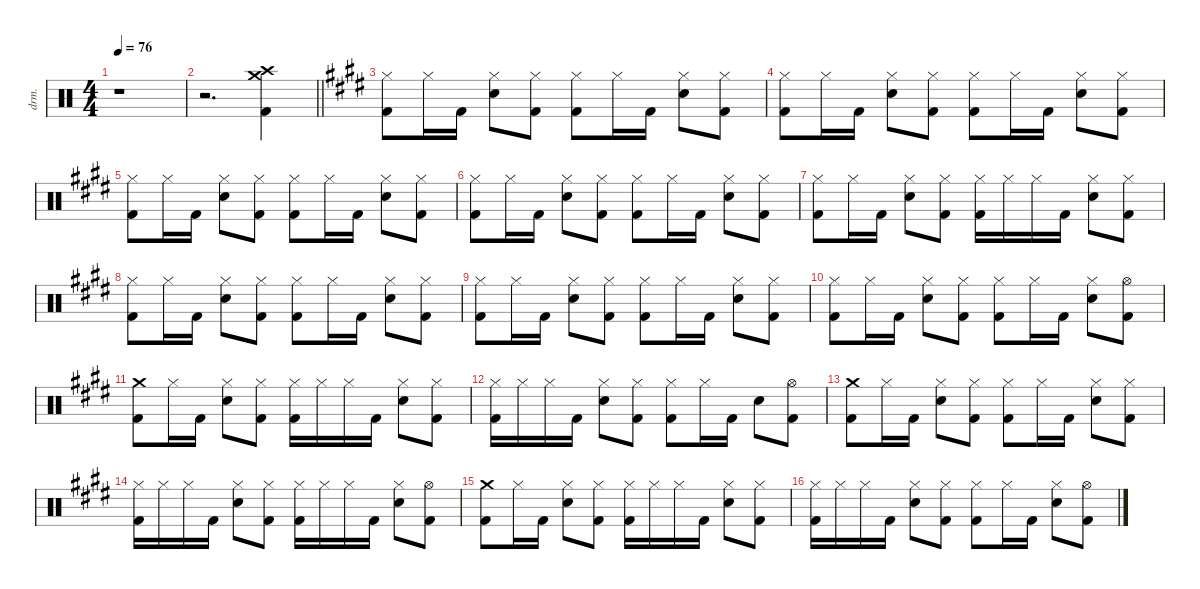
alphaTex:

\defaultSystemsLayout 4
\hideDynamics
\bracketExtendMode nobrackets
\otherSystemsTrackNameOrientation horizontal
\track ("Drums" "drm.") {defaultSystemsLayout 4 instrument percussion}
\staff {score}
\articulation defaults
\ts (4 4)
\tempo 76
\clef neutral
\ks c
r.1{dy f beam Down} |
\barLineRight lightlight
r.2{d beam Down} ("Crash medium (hit)" "Crash high (hit)" "Kick (hit) 2").4{beam Down} |
\ks e
("Hi-Hat (closed)"{acc forcenatural} "Kick (hit) 2"{acc forcenatural}).8{beam Down} "Hi-Hat (closed)"{acc forcenatural}.16{beam Down} "Kick (hit) 2"{acc forcenatural}.16{beam Down} ("Hi-Hat (closed)"{acc forcenatural} "Snare (hit) 2"{acc forcenatural}).8{dy mf beam Down} ("Hi-Hat (closed)"{acc forcenatural} "Kick (hit) 2"{acc forcenatural}).8{dy f beam Down} ("Hi-Hat (closed)"{acc forcenatural} "Kick (hit) 2"{acc forcenatural}).8{beam Down} "Hi-Hat (closed)"{acc forcenatural}.16{beam Down} "Kick (hit) 2"{acc forcenatural}.16{beam Down} ("Hi-Hat (closed)"{acc forcenatural} "Snare (hit) 2"{acc forcenatural}).8{dy mf beam Down} ("Hi-Hat (closed)"{acc forcenatural} "Kick (hit) 2"{acc forcenatural}).8{dy f beam Down} |
("Hi-Hat (closed)"{acc forcenatural} "Kick (hit) 2"{acc forcenatural}).8{beam Down} "Hi-Hat (closed)"{acc forcenatural}.16{beam Down} "Kick (hit) 2"{acc forcenatural}.16{beam Down} ("Hi-Hat (closed)"{acc forcenatural} "Snare (hit) 2"{acc forcenatural}).8{dy mf beam Down} ("Hi-Hat (closed)"{acc forcenatural} "Kick (hit) 2"{acc forcenatural}).8{dy f beam Down} ("Hi-Hat (closed)"{acc forcenatural} "Kick (hit) 2"{acc forcenatural}).8{beam Down} "Hi-Hat (closed)"{acc forcenatural}.16{beam Down} "Kick (hit) 2"{acc forcenatural}.16{beam Down} ("Hi-Hat (closed)"{acc forcenatural} "Snare (hit) 2"{acc forcenatural}).8{dy mf beam Down} ("Hi-Hat (closed)"{acc forcenatural} "Kick (hit) 2"{acc forcenatural}).8{dy f beam Down} |
("Hi-Hat (closed)"{acc forcenatural} "Kick (hit) 2"{acc forcenatural}).8{beam Down} "Hi-Hat (closed)"{acc forcenatural}.16{beam Down} "Kick (hit) 2"{acc forcenatural}.16{beam Down} ("Hi-Hat (closed)"{acc forcenatural} "Snare (hit) 2"{acc forcenatural}).8{dy mf beam Down} ("Hi-Hat (closed)"{acc forcenatural} "Kick (hit) 2"{acc forcenatural}).8{dy f beam Down} ("Hi-Hat (closed)"{acc forcenatural} "Kick (hit) 2"{acc forcenatural}).8{beam Down} "Hi-Hat (closed)"{acc forcenatural}.16{beam Down} "Kick (hit) 2"{acc forcenatural}.16{beam Down} ("Hi-Hat (closed)"{acc forcenatural} "Snare (hit) 2"{acc forcenatural}).8{dy mf beam Down} ("Hi-Hat (closed)"{acc forcenatural} "Kick (hit) 2"{acc forcenatural}).8{dy f beam Down} |
("Hi-Hat (closed)"{acc forcenatural} "Kick (hit) 2"{acc forcenatural}).8{beam Down} "Hi-Hat (closed)"{acc forcenatural}.16{beam Down} "Kick (hit) 2"{acc forcenatural}.16{beam Down} ("Hi-Hat (closed)"{acc forcenatural} "Snare (hit) 2"{acc forcenatural}).8{dy mf beam Down} ("Hi-Hat (closed)"{acc forcenatural} "Kick (hit) 2"{acc forcenatural}).8{dy f beam Down} ("Hi-Hat (closed)"{acc forcenatural} "Kick (hit) 2"{acc forcenatural}).8{beam Down} "Hi-Hat (closed)"{acc forcenatural}.16{beam Down} "Kick (hit) 2"{acc forcenatural}.16{beam Down} ("Hi-Hat (closed)"{acc forcenatural} "Snare (hit) 2"{acc forcenatural}).8{dy mf beam Down} ("Hi-Hat (closed)"{acc forcenatural} "Kick (hit) 2"{acc forcenatural}).8{dy f beam Down} |
("Hi-Hat (closed)"{acc forcenatural} "Kick (hit) 2"{acc forcenatural}).8{beam Down} "Hi-Hat (closed)"{acc forcenatural}.16{beam Down} "Kick (hit) 2"{acc forcenatural}.16{beam Down} ("Hi-Hat (closed)"{acc forcenatural} "Snare (hit) 2"{acc forcenatural}).8{dy mf beam Down} ("Hi-Hat (closed)"{acc forcenatural} "Kick (hit) 2"{acc forcenatural}).8{dy f beam Down} ("Hi-Hat (closed)"{acc forcenatural} "Kick (hit) 2"{acc forcenatural}).16{beam Down} "Hi-Hat (closed)"{acc forcenatural}.16{dy mf beam Down} "Hi-Hat (closed)"{acc forcenatural}.16{dy f beam Down} "Kick (hit) 2"{acc forcenatural}.16{beam Down} ("Hi-Hat (closed)"{acc forcenatural} "Snare (hit) 2"{acc forcenatural}).8{dy mf beam Down} ("Hi-Hat (closed)"{acc forcenatural} "Kick (hit) 2"{acc forcenatural}).8{dy f beam Down} |
("Hi-Hat (closed)"{acc forcenatural} "Kick (hit) 2"{acc forcenatural}).8{beam Down} "Hi-Hat (closed)"{acc forcenatural}.16{beam Down} "Kick (hit) 2"{acc forcenatural}.16{beam Down} ("Hi-Hat (closed)"{acc forcenatural} "Snare (hit) 2"{acc forcenatural}).8{dy mf beam Down} ("Hi-Hat (closed)"{acc forcenatural} "Kick (hit) 2"{acc forcenatural}).8{dy f beam Down} ("Hi-Hat (closed)"{acc forcenatural} "Kick (hit) 2"{acc forcenatural}).8{beam Down} "Hi-Hat (closed)"{acc forcenatural}.16{beam Down} "Kick (hit) 2"{acc forcenatural}.16{beam Down} ("Hi-Hat (closed)"{acc forcenatural} "Snare (hit) 2"{acc forcenatural}).8{dy mf beam Down} ("Hi-Hat (closed)"{acc forcenatural} "Kick (hit) 2"{acc forcenatural}).8{dy f beam Down} |
("Hi-Hat (closed)"{acc forcenatural} "Kick (hit) 2"{acc forcenatural}).8{beam Down} "Hi-Hat (closed)"{acc forcenatural}.16{beam Down} "Kick (hit) 2"{acc forcenatural}.16{beam Down} ("Hi-Hat (closed)"{acc forcenatural} "Snare (hit) 2"{acc forcenatural}).8{dy mf beam Down} ("Hi-Hat (closed)"{acc forcenatural} "Kick (hit) 2"{acc forcenatural}).8{dy f beam Down} ("Hi-Hat (closed)"{acc forcenatural} "Kick (hit) 2"{acc forcenatural}).8{beam Down} "Hi-Hat (closed)"{acc forcenatural}.16{beam Down} "Kick (hit) 2"{acc forcenatural}.16{beam Down} ("Hi-Hat (closed)"{acc forcenatural} "Snare (hit) 2"{acc forcenatural}).8{dy mf beam Down} ("Hi-Hat (closed)"{acc forcenatural} "Kick (hit) 2"{acc forcenatural}).8{dy f beam Down} |
("Hi-Hat (closed)"{acc forcenatural} "Kick (hit) 2"{acc forcenatural}).8{beam Down} "Hi-Hat (closed)"{acc forcenatural}.16{beam Down} "Kick (hit) 2"{acc forcenatural}.16{beam Down} ("Hi-Hat (closed)"{acc forcenatural} "Snare (hit) 2"{acc forcenatural}).8{dy mf beam Down} ("Hi-Hat (closed)"{acc forcenatural} "Kick (hit) 2"{acc forcenatural}).8{dy f beam Down} ("Hi-Hat (closed)"{acc forcenatural} "Kick (hit) 2"{acc forcenatural}).8{beam Down} "Hi-Hat (closed)"{acc forcenatural}.16{beam Down} "Kick (hit) 2"{acc forcenatural}.16{beam Down} ("Hi-Hat (closed)"{acc forcenatural} "Snare (hit) 2"{acc forcenatural}).8{dy mf beam Down} ("Hi-Hat (open)"{acc forcenatural} "Kick (hit) 2"{acc forcenatural}).8{dy f beam Down} |
("Crash medium (hit)"{acc forcenatural} "Kick (hit) 2"{acc forcenatural}).8{beam Down} "Hi-Hat (closed)"{acc forcenatural}.16{beam Down} "Kick (hit) 2"{acc forcenatural}.16{beam Down} ("Hi-Hat (closed)"{acc forcenatural} "Snare (hit) 2"{acc forcenatural}).8{dy mf beam Down} ("Hi-Hat (closed)"{acc forcenatural} "Kick (hit) 2"{acc forcenatural}).8{dy f beam Down} ("Hi-Hat (closed)"{acc forcenatural} "Kick (hit) 2"{acc forcenatural}).16{beam Down} "Hi-Hat (closed)"{acc forcenatural}.16{dy mf beam Down} "Hi-Hat (closed)"{acc forcenatural}.16{dy f beam Down} "Kick (hit) 2"{acc forcenatural}.16{beam Down} ("Hi-Hat (closed)"{acc forcenatural} "Snare (hit) 2"{acc forcenatural}).8{dy mf beam Down} ("Hi-Hat (closed)"{acc forcenatural} "Kick (hit) 2"{acc forcenatural}).8{dy f beam Down} |
("Hi-Hat (closed)"{acc forcenatural} "Kick (hit) 2"{acc forcenatural}).16{beam Down} "Hi-Hat (closed)"{acc forcenatural}.16{dy mf beam Down} "Hi-Hat (closed)"{acc forcenatural}.16{dy f beam Down} "Kick (hit) 2"{acc forcenatural}.16{beam Down} ("Hi-Hat (closed)"{acc forcenatural} "Snare (hit) 2"{acc forcenatural}).8{dy mf beam Down} ("Hi-Hat (closed)"{acc forcenatural} "Kick (hit) 2"{acc forcenatural}).8{dy f beam Down} ("Hi-Hat (closed)"{acc forcenatural} "Kick (hit) 2"{acc forcenatural}).8{beam Down} "Hi-Hat (closed)"{acc forcenatural}.16{beam Down} "Kick (hit) 2"{acc forcenatural}.16{beam Down} "Snare (hit) 2"{acc forcenatural}.8{beam Down} ("Hi-Hat (open)"{acc forcenatural} "Kick (hit) 2"{acc forcenatural}).8{beam Down} |
("Crash medium (hit)"{acc forcenatural} "Kick (hit) 2"{acc forcenatural}).8{beam Down} "Hi-Hat (closed)"{acc forcenatural}.16{beam Down} "Kick (hit) 2"{acc forcenatural}.16{beam Down} ("Hi-Hat (closed)"{acc forcenatural} "Snare (hit) 2"{acc forcenatural}).8{dy mf beam Down} ("Hi-Hat (closed)"{acc forcenatural} "Kick (hit) 2"{acc forcenatural}).8{dy f beam Down} ("Hi-Hat (closed)"{acc forcenatural} "Kick (hit) 2"{acc forcenatural}).8{beam Down} "Hi-Hat (closed)"{acc forcenatural}.16{beam Down} "Kick (hit) 2"{acc forcenatural}.16{beam Down} ("Hi-Hat (closed)"{acc forcenatural} "Snare (hit) 2"{acc forcenatural}).8{dy mf beam Down} ("Hi-Hat (closed)"{acc forcenatural} "Kick (hit) 2"{acc forcenatural}).8{dy f beam Down} |
("Hi-Hat (closed)"{acc forcenatural} "Kick (hit) 2"{acc forcenatural}).16{beam Down} "Hi-Hat (closed)"{acc forcenatural}.16{dy mf beam Down} "Hi-Hat (closed)"{acc forcenatural}.16{dy f beam Down} "Kick (hit) 2"{acc forcenatural}.16{beam Down} ("Hi-Hat (closed)"{acc forcenatural} "Snare (hit) 2"{acc forcenatural}).8{dy mf beam Down} ("Hi-Hat (closed)"{acc forcenatural} "Kick (hit) 2"{acc forcenatural}).8{dy f beam Down} ("Hi-Hat (closed)"{acc forcenatural} "Kick (hit) 2"{acc forcenatural}).16{beam Down} "Hi-Hat (closed)"{acc forcenatural}.16{dy mf beam Down} "Hi-Hat (closed)"{acc forcenatural}.16{dy f beam Down} "Kick (hit) 2"{acc forcenatural}.16{beam Down} ("Hi-Hat (closed)"{acc forcenatural} "Snare (hit) 2"{acc forcenatural}).8{dy mf beam Down} ("Hi-Hat (open)"{acc forcenatural} "Kick (hit) 2"{acc forcenatural}).8{dy f beam Down} |
("Crash medium (hit)"{acc forcenatural} "Kick (hit) 2"{acc forcenatural}).8{beam Down} "Hi-Hat (closed)"{acc forcenatural}.16{beam Down} "Kick (hit) 2"{acc forcenatural}.16{beam Down} ("Hi-Hat (closed)"{acc forcenatural} "Snare (hit) 2"{acc forcenatural}).8{dy mf beam Down} ("Hi-Hat (closed)"{acc forcenatural} "Kick (hit) 2"{acc forcenatural}).8{dy f beam Down} ("Hi-Hat (closed)"{acc forcenatural} "Kick (hit) 2"{acc forcenatural}).16{beam Down} "Hi-Hat (closed)"{acc forcenatural}.16{dy mf beam Down} "Hi-Hat (closed)"{acc forcenatural}.16{dy f beam Down} "Kick (hit) 2"{acc forcenatural}.16{beam Down} ("Hi-Hat (closed)"{acc forcenatural} "Snare (hit) 2"{acc forcenatural}).8{dy mf beam Down} ("Hi-Hat (closed)"{acc forcenatural} "Kick (hit) 2"{acc forcenatural}).8{dy f beam Down} |
("Hi-Hat (closed)"{acc forcenatural} "Kick (hit) 2"{acc forcenatural}).16{beam Down} "Hi-Hat (closed)"{acc forcenatural}.16{dy mf beam Down} "Hi-Hat (closed)"{acc forcenatural}.16{dy f beam Down} "Kick (hit) 2"{acc forcenatural}.16{beam Down} ("Hi-Hat (closed)"{acc forcenatural} "Snare (hit) 2"{acc forcenatural}).8{dy mf beam Down} ("Hi-Hat (closed)"{acc forcenatural} "Kick (hit) 2"{acc forcenatural}).8{dy f beam Down} ("Hi-Hat (closed)"{acc forcenatural} "Kick (hit) 2"{acc forcenatural}).8{beam Down} "Hi-Hat (closed)"{acc forcenatural}.16{beam Down} "Kick (hit) 2"{acc forcenatural}.16{beam Down} ("Hi-Hat (closed)"{acc forcenatural} "Snare (hit) 2"{acc forcenatural}).8{dy mf beam Down} ("Hi-Hat (open)"{acc forcenatural} "Kick (hit) 2"{acc forcenatural}).8{dy f beam Down}
